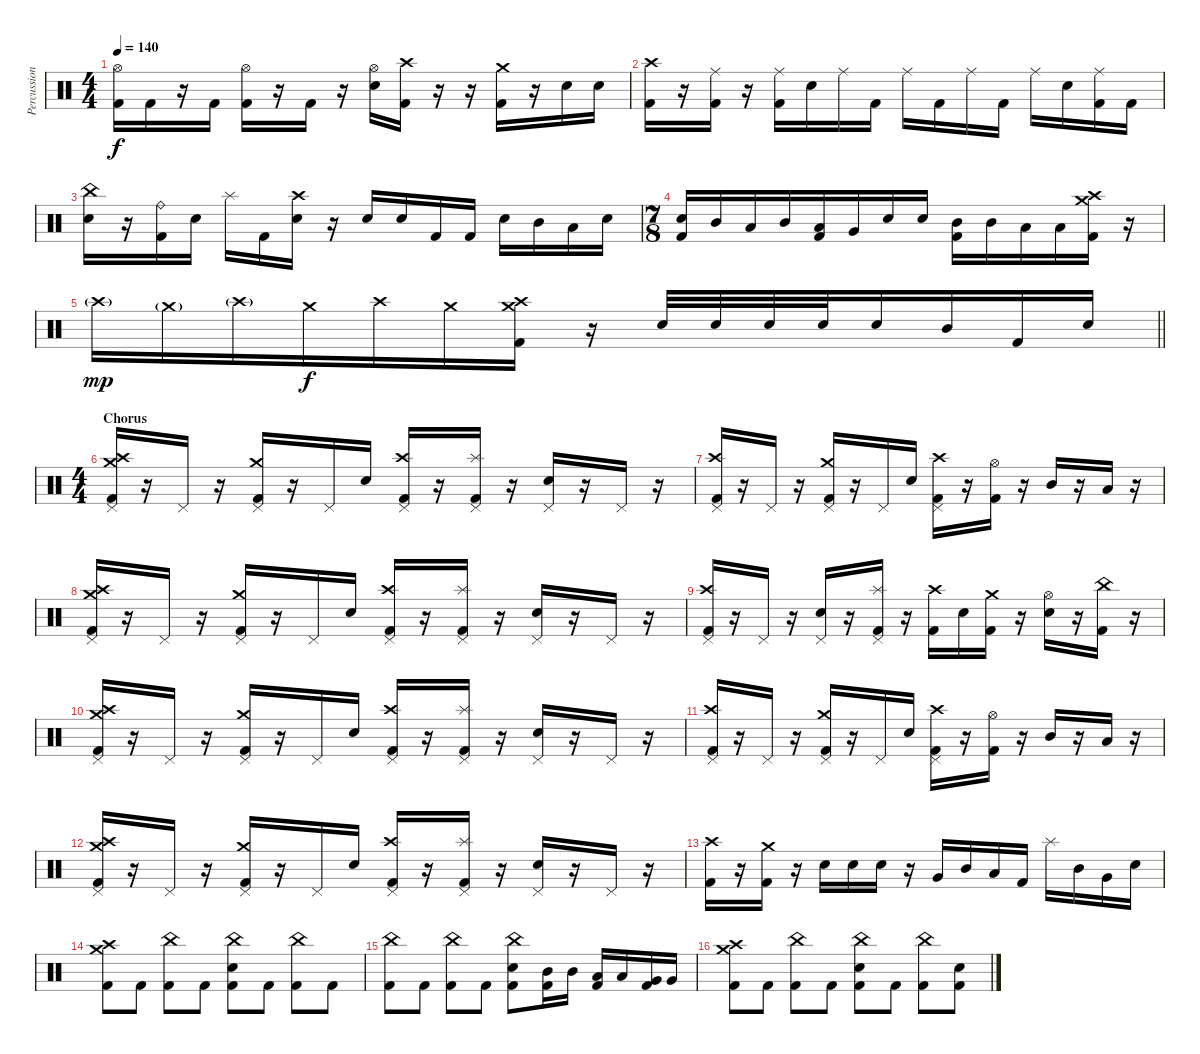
\track ("Percussion" "Percussion") {instrument percussion}
\staff {score}
\articulation defaults
\ts (4 4)
\tempo 140
\clef neutral
\ks c
("Hi-Hat (open)" "Kick (hit) 2").16{dy f} "Kick (hit) 2".16 r.16 "Kick (hit) 2".16 ("Hi-Hat (open)" "Kick (hit) 2").16 r.16 "Kick (hit) 2".16 r.16 ("Hi-Hat (open)" "Electric Snare (hit)").16 ("Crash high (hit)" "Kick (hit) 2").16 r.16 r.16 ("Crash medium (hit)" "Kick (hit) 2").16 r.16 "Electric Snare (hit)".16 "Electric Snare (hit)".16 |
("Crash high (hit)" "Kick (hit) 2").16 r.16 ("Ride (middle)" "Kick (hit) 2").16 r.16 ("Ride (middle)" "Kick (hit) 2").16 "Electric Snare (hit)".16 "Ride (middle)".16 "Kick (hit) 2".16 "Ride (middle)".16 "Kick (hit) 2".16 "Ride (middle)".16 "Kick (hit) 2".16 "Ride (middle)".16 "Electric Snare (hit)".16 ("Ride (middle)" "Kick (hit) 2").16 "Kick (hit) 2".16 |
("China (hit)" "Electric Snare (hit)").16 r.16 ("Ride (bell)" "Kick (hit) 2").16 "Electric Snare (hit)".16 "Splash (hit)".16 "Kick (hit) 2".16 ("Crash high (hit)" "Electric Snare (hit)").16 r.16 "Electric Snare (hit)".16 "Electric Snare (hit)".16 "Kick (hit) 2".16 "Kick (hit) 2".16 "Electric Snare (hit)".16 "Mid Tom (hit)".16 "Low Tom (hit)".16 "Electric Snare (hit)".16 |
\ts (7 8)
("Electric Snare (hit)" "Kick (hit) 2").16 "Mid Tom (hit)".16 "Low Tom (hit)".16 "Mid Tom (hit)".16 ("Low Tom (hit)" "Kick (hit) 2").16 "Very Low Tom (hit)".16 "Electric Snare (hit)".16 "Electric Snare (hit)".16 ("Mid Tom (hit)" "Kick (hit) 2").16 "Mid Tom (hit)".16 "Low Tom (hit)".16 "Low Tom (hit)".16 ("Crash high (hit)" "Crash medium (hit)" "Kick (hit) 2").16 r.16 |
\barLineRight lightlight "Crash high (hit)"{g}.16{dy mp} "Crash medium (hit)"{g}.16 "Crash high (hit)"{g}.16 "Crash medium (hit)".16{dy f} "Crash high (hit)".16 "Crash medium (hit)".16
("Crash high (hit)" "Crash medium (hit)" "Kick (hit) 2").16 r.16 "Electric Snare (hit)".32 "Electric Snare (hit)".32 "Electric Snare (hit)".32 "Electric Snare (hit)".32 "Electric Snare (hit)".16 "Mid Tom (hit)".16 "Kick (hit) 2".16 "Electric Snare (hit)".16 |
\ts (4 4)
\section ("" "Chorus")
("Crash high (hit)" "Crash medium (hit)" "Pedal Hi-Hat (hit)" "Kick (hit) 2").16 r.16 "Pedal Hi-Hat (hit)".16 r.16 ("Crash medium (hit)" "Pedal Hi-Hat (hit)" "Kick (hit) 2").16 r.16 "Pedal Hi-Hat (hit)".16 "Electric Snare (hit)".16 ("Crash high (hit)" "Pedal Hi-Hat (hit)" "Kick (hit) 2").16 r.16 ("Splash (hit)" "Pedal Hi-Hat (hit)" "Kick (hit) 2").16 r.16 ("Electric Snare (hit)" "Pedal Hi-Hat (hit)").16 r.16 "Pedal Hi-Hat (hit)".16 r.16 |
("Crash high (hit)" "Pedal Hi-Hat (hit)" "Kick (hit) 2").16 r.16 "Pedal Hi-Hat (hit)".16 r.16 ("Crash medium (hit)" "Pedal Hi-Hat (hit)" "Kick (hit) 2").16 r.16 "Pedal Hi-Hat (hit)".16 "Electric Snare (hit)".16 ("Crash high (hit)" "Pedal Hi-Hat (hit)" "Kick (hit) 2").16 r.16 ("Hi-Hat (open)" "Kick (hit) 2").16 r.16 "Mid Tom (hit)".16 r.16 "Low Tom (hit)".16 r.16 |
("Crash high (hit)" "Crash medium (hit)" "Pedal Hi-Hat (hit)" "Kick (hit) 2").16 r.16 "Pedal Hi-Hat (hit)".16 r.16 ("Crash medium (hit)" "Pedal Hi-Hat (hit)" "Kick (hit) 2").16 r.16 "Pedal Hi-Hat (hit)".16 "Electric Snare (hit)".16 ("Crash high (hit)" "Pedal Hi-Hat (hit)" "Kick (hit) 2").16 r.16 ("Splash (hit)" "Pedal Hi-Hat (hit)" "Kick (hit) 2").16 r.16 ("Electric Snare (hit)" "Pedal Hi-Hat (hit)").16 r.16 "Pedal Hi-Hat (hit)".16 r.16 |
("Crash high (hit)" "Pedal Hi-Hat (hit)" "Kick (hit) 2").16 r.16 "Pedal Hi-Hat (hit)".16 r.16 ("Electric Snare (hit)" "Pedal Hi-Hat (hit)").16 r.16 ("Splash (hit)" "Pedal Hi-Hat (hit)" "Kick (hit) 2").16 r.16 ("Crash high (hit)" "Kick (hit) 2").16 "Electric Snare (hit)".16 ("Crash medium (hit)" "Kick (hit) 2").16 r.16 ("Hi-Hat (open)" "Electric Snare (hit)").16 r.16 ("China (hit)" "Kick (hit) 2").16 r.16 |
("Crash high (hit)" "Crash medium (hit)" "Pedal Hi-Hat (hit)" "Kick (hit) 2").16 r.16 "Pedal Hi-Hat (hit)".16 r.16 ("Crash medium (hit)" "Pedal Hi-Hat (hit)" "Kick (hit) 2").16 r.16 "Pedal Hi-Hat (hit)".16 "Electric Snare (hit)".16 ("Crash high (hit)" "Pedal Hi-Hat (hit)" "Kick (hit) 2").16 r.16 ("Splash (hit)" "Pedal Hi-Hat (hit)" "Kick (hit) 2").16 r.16 ("Electric Snare (hit)" "Pedal Hi-Hat (hit)").16 r.16 "Pedal Hi-Hat (hit)".16 r.16 |
("Crash high (hit)" "Pedal Hi-Hat (hit)" "Kick (hit) 2").16 r.16 "Pedal Hi-Hat (hit)".16 r.16 ("Crash medium (hit)" "Pedal Hi-Hat (hit)" "Kick (hit) 2").16 r.16 "Pedal Hi-Hat (hit)".16 "Electric Snare (hit)".16 ("Crash high (hit)" "Pedal Hi-Hat (hit)" "Kick (hit) 2").16 r.16 ("Hi-Hat (open)" "Kick (hit) 2").16 r.16 "Mid Tom (hit)".16 r.16 "Low Tom (hit)".16 r.16 |
("Crash high (hit)" "Crash medium (hit)" "Pedal Hi-Hat (hit)" "Kick (hit) 2").16 r.16 "Pedal Hi-Hat (hit)".16 r.16 ("Crash medium (hit)" "Pedal Hi-Hat (hit)" "Kick (hit) 2").16 r.16 "Pedal Hi-Hat (hit)".16 "Electric Snare (hit)".16 ("Crash high (hit)" "Pedal Hi-Hat (hit)" "Kick (hit) 2").16 r.16 ("Splash (hit)" "Pedal Hi-Hat (hit)" "Kick (hit) 2").16 r.16 ("Electric Snare (hit)" "Pedal Hi-Hat (hit)").16 r.16 "Pedal Hi-Hat (hit)".16 r.16 |
("Crash high (hit)" "Kick (hit) 2").16 r.16 ("Crash medium (hit)" "Kick (hit) 2").16 r.16 "Electric Snare (hit)".16 "Electric Snare (hit)".16 "Electric Snare (hit)".16 r.16 "Very Low Tom (hit)".16 "Mid Tom (hit)".16 "Low Tom (hit)".16 "Kick (hit) 2".16 "Splash (hit)".16 "Mid Tom (hit)".16 "Very Low Tom (hit)".16 "Electric Snare (hit)".16 |
("Crash high (hit)" "Crash medium (hit)" "Kick (hit) 2").8 "Kick (hit) 2".8 ("China (hit)" "Kick (hit) 2").8 "Kick (hit) 2".8 ("China (hit)" "Electric Snare (hit)" "Kick (hit) 2").8 "Kick (hit) 2".8 ("China (hit)" "Kick (hit) 2").8 "Kick (hit) 2".8 |
("China (hit)" "Kick (hit) 2").8 "Kick (hit) 2".8 ("China (hit)" "Kick (hit) 2").8 "Kick (hit) 2".8 ("China (hit)" "Electric Snare (hit)" "Kick (hit) 2").8 ("Mid Tom (hit)" "Kick (hit) 2").16 "Mid Tom (hit)".16 ("Low Tom (hit)" "Kick (hit) 2").16 "Low Tom (hit)".16 ("Very Low Tom (hit)" "Kick (hit) 2").16 "Very Low Tom (hit)".16 |
("Crash high (hit)" "Crash medium (hit)" "Kick (hit) 2").8 "Kick (hit) 2".8 ("China (hit)" "Kick (hit) 2").8 "Kick (hit) 2".8 ("China (hit)" "Electric Snare (hit)" "Kick (hit) 2").8 "Kick (hit) 2".8 ("China (hit)" "Kick (hit) 2").8 ("Electric Snare (hit)" "Kick (hit) 2").8
